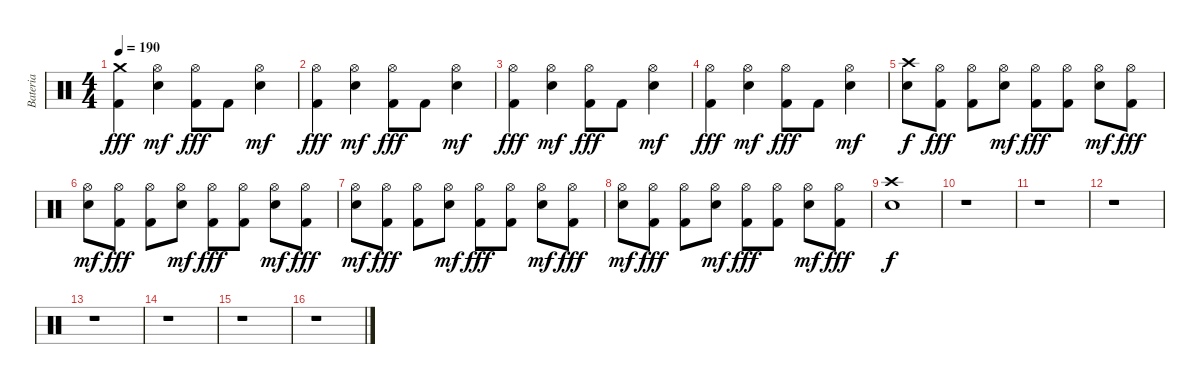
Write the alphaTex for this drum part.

\track ("Bateria" "Bateria") {instrument percussion}
\staff {score}
\articulation defaults
\ts (4 4)
\tempo 190
\clef neutral
\ks c
("Crash medium (hit)" "Kick (hit) 2").4{dy fff} ("Hi-Hat (open)" "Electric Snare (hit)").4{dy mf} ("Hi-Hat (open)" "Kick (hit) 2").8{dy fff} "Kick (hit) 2".8 ("Hi-Hat (open)" "Electric Snare (hit)").4{dy mf} |
("Hi-Hat (open)" "Kick (hit) 2").4{dy fff} ("Hi-Hat (open)" "Electric Snare (hit)").4{dy mf} ("Hi-Hat (open)" "Kick (hit) 2").8{dy fff} "Kick (hit) 2".8 ("Hi-Hat (open)" "Electric Snare (hit)").4{dy mf} |
("Hi-Hat (open)" "Kick (hit) 2").4{dy fff} ("Hi-Hat (open)" "Electric Snare (hit)").4{dy mf} ("Hi-Hat (open)" "Kick (hit) 2").8{dy fff} "Kick (hit) 2".8 ("Hi-Hat (open)" "Electric Snare (hit)").4{dy mf} |
("Hi-Hat (open)" "Kick (hit) 2").4{dy fff} ("Hi-Hat (open)" "Electric Snare (hit)").4{dy mf} ("Hi-Hat (open)" "Kick (hit) 2").8{dy fff} "Kick (hit) 2".8 ("Hi-Hat (open)" "Electric Snare (hit)").4{dy mf} |
("Crash high (hit)" "Electric Snare (hit)").8{dy f} ("Hi-Hat (open)" "Kick (hit) 2").8{dy fff} ("Hi-Hat (open)" "Kick (hit) 2").8 ("Hi-Hat (open)" "Electric Snare (hit)").8{dy mf} ("Hi-Hat (open)" "Kick (hit) 2").8{dy fff} ("Hi-Hat (open)" "Kick (hit) 2").8 ("Hi-Hat (open)" "Electric Snare (hit)").8{dy mf} ("Hi-Hat (open)" "Kick (hit) 2").8{dy fff} |
("Hi-Hat (open)" "Electric Snare (hit)").8{dy mf} ("Hi-Hat (open)" "Kick (hit) 2").8{dy fff} ("Hi-Hat (open)" "Kick (hit) 2").8 ("Hi-Hat (open)" "Electric Snare (hit)").8{dy mf} ("Hi-Hat (open)" "Kick (hit) 2").8{dy fff} ("Hi-Hat (open)" "Kick (hit) 2").8 ("Hi-Hat (open)" "Electric Snare (hit)").8{dy mf} ("Hi-Hat (open)" "Kick (hit) 2").8{dy fff} |
("Hi-Hat (open)" "Electric Snare (hit)").8{dy mf} ("Hi-Hat (open)" "Kick (hit) 2").8{dy fff} ("Hi-Hat (open)" "Kick (hit) 2").8 ("Hi-Hat (open)" "Electric Snare (hit)").8{dy mf} ("Hi-Hat (open)" "Kick (hit) 2").8{dy fff} ("Hi-Hat (open)" "Kick (hit) 2").8 ("Hi-Hat (open)" "Electric Snare (hit)").8{dy mf} ("Hi-Hat (open)" "Kick (hit) 2").8{dy fff} |
("Hi-Hat (open)" "Electric Snare (hit)").8{dy mf} ("Hi-Hat (open)" "Kick (hit) 2").8{dy fff} ("Hi-Hat (open)" "Kick (hit) 2").8 ("Hi-Hat (open)" "Electric Snare (hit)").8{dy mf} ("Hi-Hat (open)" "Kick (hit) 2").8{dy fff} ("Hi-Hat (open)" "Kick (hit) 2").8 ("Hi-Hat (open)" "Electric Snare (hit)").8{dy mf} ("Hi-Hat (open)" "Kick (hit) 2").8{dy fff} |
("Crash high (hit)" "Electric Snare (hit)").1{dy f} |
r.1 |
r.1 |
r.1 |
r.1 |
r.1 |
r.1 |
r.1
